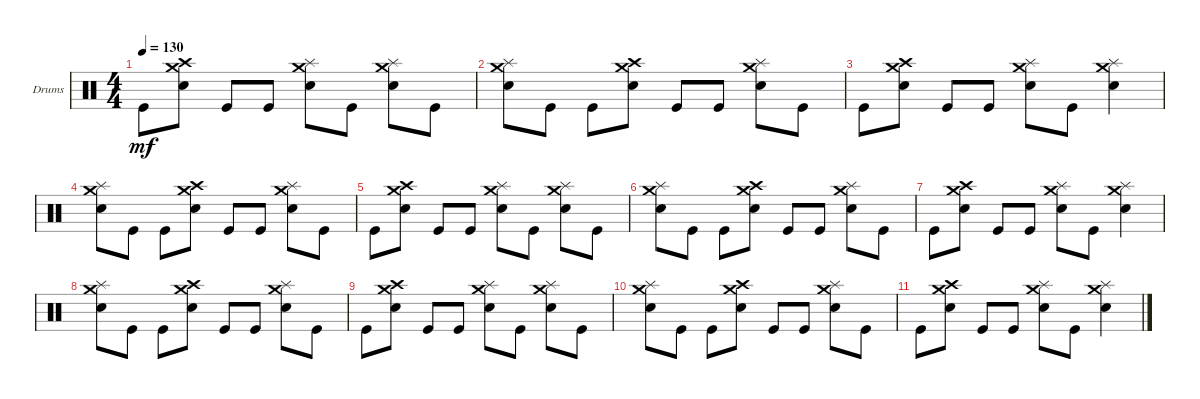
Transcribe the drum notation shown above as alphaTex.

\defaultSystemsLayout 4
\bracketExtendMode groupsimilarinstruments
\firstSystemTrackNameOrientation horizontal
\otherSystemsTrackNameOrientation horizontal
\track ("Drumkit" "Drums") {instrument percussion}
\staff {score}
\articulation defaults
\ts (4 4)
\tempo 130
\clef neutral
\ks c "Kick (hit)".8{dy mf}
("Snare (hit) 2" "Crash high (hit)" "Crash medium (hit)").8 "Kick (hit)".8 "Kick (hit)".8 ("Snare (hit) 2" "Splash (hit)" "Crash medium (hit)").8 "Kick (hit)".8 ("Snare (hit) 2" "Splash (hit)" "Crash medium (hit)").8 "Kick (hit)".8 |
("Snare (hit) 2" "Splash (hit)" "Crash medium (hit)").8 "Kick (hit)".8 "Kick (hit)".8 ("Snare (hit) 2" "Crash high (hit)" "Crash medium (hit)").8 "Kick (hit)".8 "Kick (hit)".8 ("Snare (hit) 2" "Splash (hit)" "Crash medium (hit)").8 "Kick (hit)".8 |
"Kick (hit)".8 ("Snare (hit) 2" "Crash high (hit)" "Crash medium (hit)").8 "Kick (hit)".8 "Kick (hit)".8 ("Snare (hit) 2" "Splash (hit)" "Crash medium (hit)").8 "Kick (hit)".8 ("Snare (hit) 2" "Splash (hit)" "Crash medium (hit)").4 |
("Snare (hit) 2" "Splash (hit)" "Crash medium (hit)").8 "Kick (hit)".8 "Kick (hit)".8 ("Snare (hit) 2" "Crash high (hit)" "Crash medium (hit)").8 "Kick (hit)".8 "Kick (hit)".8 ("Snare (hit) 2" "Splash (hit)" "Crash medium (hit)").8 "Kick (hit)".8 |
"Kick (hit)".8 ("Snare (hit) 2" "Crash high (hit)" "Crash medium (hit)").8 "Kick (hit)".8 "Kick (hit)".8 ("Snare (hit) 2" "Splash (hit)" "Crash medium (hit)").8 "Kick (hit)".8 ("Snare (hit) 2" "Splash (hit)" "Crash medium (hit)").8 "Kick (hit)".8 |
("Snare (hit) 2" "Splash (hit)" "Crash medium (hit)").8 "Kick (hit)".8 "Kick (hit)".8 ("Snare (hit) 2" "Crash high (hit)" "Crash medium (hit)").8 "Kick (hit)".8 "Kick (hit)".8 ("Snare (hit) 2" "Splash (hit)" "Crash medium (hit)").8 "Kick (hit)".8 |
"Kick (hit)".8 ("Snare (hit) 2" "Crash high (hit)" "Crash medium (hit)").8 "Kick (hit)".8 "Kick (hit)".8 ("Snare (hit) 2" "Splash (hit)" "Crash medium (hit)").8 "Kick (hit)".8 ("Snare (hit) 2" "Splash (hit)" "Crash medium (hit)").4 |
("Snare (hit) 2" "Splash (hit)" "Crash medium (hit)").8 "Kick (hit)".8 "Kick (hit)".8 ("Snare (hit) 2" "Crash high (hit)" "Crash medium (hit)").8 "Kick (hit)".8 "Kick (hit)".8 ("Snare (hit) 2" "Splash (hit)" "Crash medium (hit)").8 "Kick (hit)".8 |
"Kick (hit)".8 ("Snare (hit) 2" "Crash high (hit)" "Crash medium (hit)").8 "Kick (hit)".8 "Kick (hit)".8 ("Snare (hit) 2" "Splash (hit)" "Crash medium (hit)").8 "Kick (hit)".8 ("Snare (hit) 2" "Splash (hit)" "Crash medium (hit)").8 "Kick (hit)".8 |
("Snare (hit) 2" "Splash (hit)" "Crash medium (hit)").8 "Kick (hit)".8 "Kick (hit)".8 ("Snare (hit) 2" "Crash high (hit)" "Crash medium (hit)").8 "Kick (hit)".8 "Kick (hit)".8 ("Snare (hit) 2" "Splash (hit)" "Crash medium (hit)").8 "Kick (hit)".8 |
"Kick (hit)".8 ("Snare (hit) 2" "Crash high (hit)" "Crash medium (hit)").8 "Kick (hit)".8 "Kick (hit)".8 ("Snare (hit) 2" "Splash (hit)" "Crash medium (hit)").8 "Kick (hit)".8 ("Snare (hit) 2" "Splash (hit)" "Crash medium (hit)").4
